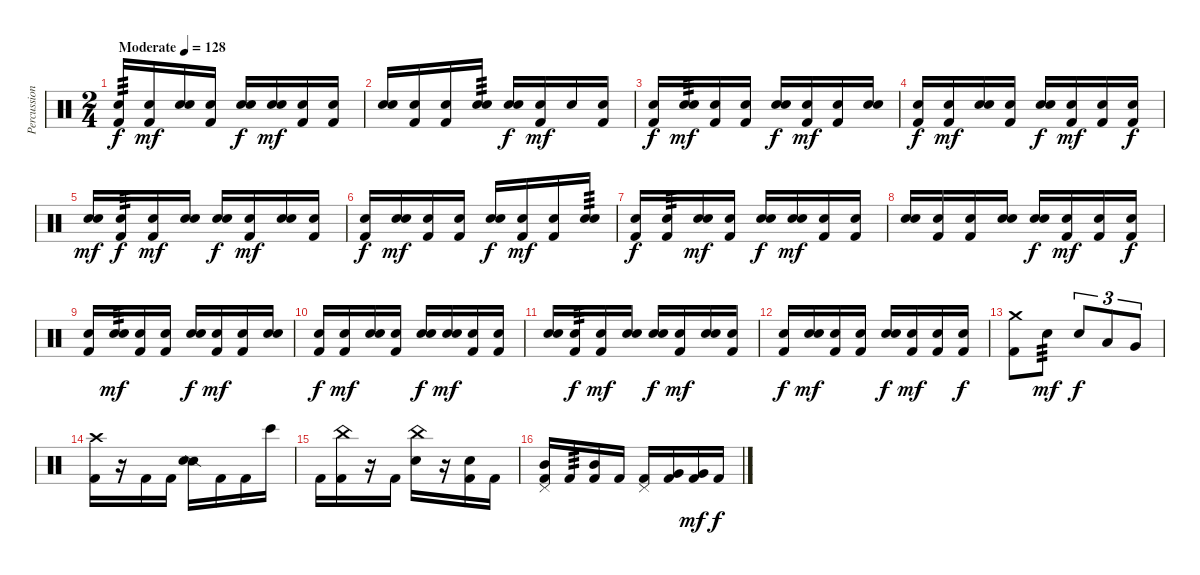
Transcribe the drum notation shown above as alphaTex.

\track ("Percussion" "Percussion") {instrument percussion}
\staff {score}
\articulation defaults
\ts (2 4)
\tempo (128 "Moderate")
\clef neutral
\ks c
("Snare (hit)" "Kick (hit) 2").16{tp 3 dy f volume 0} ("Snare (hit)" "Kick (hit) 2").16{dy mf volume 13} ("Snare (hit)" "Snare (hit) 2").16 ("Snare (hit)" "Kick (hit) 2").16 ("Snare (hit)" "Snare (hit) 2").16{dy f} ("Snare (hit)" "Snare (hit) 2").16{dy mf} ("Snare (hit)" "Kick (hit) 2").16 ("Snare (hit)" "Kick (hit) 2").16 |
("Snare (hit)" "Snare (hit) 2").16 ("Snare (hit)" "Kick (hit) 2").16 ("Snare (hit)" "Kick (hit) 2").16 ("Snare (hit)" "Snare (hit) 2").16{tp 3} ("Snare (hit)" "Snare (hit) 2").16{dy f} ("Snare (hit)" "Kick (hit) 2").16{dy mf} "Snare (hit)".16 ("Snare (hit)" "Kick (hit) 2").16 |
("Snare (hit)" "Kick (hit) 2").16{dy f} ("Snare (hit)" "Snare (hit) 2").16{tp 3 dy mf} ("Snare (hit)" "Kick (hit) 2").16 ("Snare (hit)" "Kick (hit) 2").16 ("Snare (hit)" "Snare (hit) 2").16{dy f} ("Snare (hit)" "Kick (hit) 2").16{dy mf} ("Snare (hit)" "Kick (hit) 2").16 ("Snare (hit)" "Snare (hit) 2").16 |
("Snare (hit)" "Kick (hit) 2").16{dy f} ("Snare (hit)" "Kick (hit) 2").16{dy mf} ("Snare (hit)" "Snare (hit) 2").16 ("Snare (hit)" "Kick (hit) 2").16 ("Snare (hit)" "Snare (hit) 2").16{dy f} ("Snare (hit)" "Kick (hit) 2").16{dy mf} ("Snare (hit)" "Kick (hit) 2").16 ("Snare (hit)" "Kick (hit) 2").16{dy f} |
("Snare (hit)" "Snare (hit) 2").16{dy mf} ("Snare (hit)" "Kick (hit) 2").16{tp 3 dy f} ("Snare (hit)" "Kick (hit) 2").16{dy mf} ("Snare (hit)" "Snare (hit) 2").16 ("Snare (hit)" "Snare (hit) 2").16{dy f} ("Snare (hit)" "Kick (hit) 2").16{dy mf} ("Snare (hit)" "Snare (hit) 2").16 ("Snare (hit)" "Kick (hit) 2").16 |
("Snare (hit)" "Kick (hit) 2").16{dy f} ("Snare (hit)" "Snare (hit) 2").16{dy mf} ("Snare (hit)" "Kick (hit) 2").16 ("Snare (hit)" "Kick (hit) 2").16 ("Snare (hit)" "Snare (hit) 2").16{dy f} ("Snare (hit)" "Kick (hit) 2").16{dy mf} ("Snare (hit)" "Kick (hit) 2").16 ("Snare (hit)" "Snare (hit) 2").16{tp 3} |
("Snare (hit)" "Kick (hit) 2").16{dy f} ("Snare (hit)" "Kick (hit) 2").16{tp 3} ("Snare (hit)" "Snare (hit) 2").16{dy mf} ("Snare (hit)" "Kick (hit) 2").16 ("Snare (hit)" "Snare (hit) 2").16{dy f} ("Snare (hit)" "Snare (hit) 2").16{dy mf} ("Snare (hit)" "Kick (hit) 2").16 ("Snare (hit)" "Kick (hit) 2").16 |
("Snare (hit)" "Snare (hit) 2").16 ("Snare (hit)" "Kick (hit) 2").16 ("Snare (hit)" "Kick (hit) 2").16 ("Snare (hit)" "Snare (hit) 2").16 ("Snare (hit)" "Snare (hit) 2").16{dy f} ("Snare (hit)" "Kick (hit) 2").16{dy mf} ("Snare (hit)" "Kick (hit) 2").16 ("Snare (hit)" "Kick (hit) 2").16{dy f} |
("Snare (hit)" "Kick (hit) 2").16 ("Snare (hit)" "Snare (hit) 2").16{tp 3 dy mf} ("Snare (hit)" "Kick (hit) 2").16 ("Snare (hit)" "Kick (hit) 2").16 ("Snare (hit)" "Snare (hit) 2").16{dy f} ("Snare (hit)" "Kick (hit) 2").16{dy mf} ("Snare (hit)" "Kick (hit) 2").16 ("Snare (hit)" "Snare (hit) 2").16 |
("Snare (hit)" "Kick (hit) 2").16{dy f} ("Snare (hit)" "Kick (hit) 2").16{dy mf} ("Snare (hit)" "Snare (hit) 2").16 ("Snare (hit)" "Kick (hit) 2").16 ("Snare (hit)" "Snare (hit) 2").16{dy f} ("Snare (hit)" "Snare (hit) 2").16{dy mf} ("Snare (hit)" "Kick (hit) 2").16 ("Snare (hit)" "Kick (hit) 2").16 |
("Snare (hit)" "Snare (hit) 2").16 ("Snare (hit)" "Kick (hit) 2").16{tp 3 dy f} ("Snare (hit)" "Kick (hit) 2").16{dy mf} ("Snare (hit)" "Snare (hit) 2").16 ("Snare (hit)" "Snare (hit) 2").16{dy f} ("Snare (hit)" "Kick (hit) 2").16{dy mf} ("Snare (hit)" "Snare (hit) 2").16 ("Snare (hit)" "Kick (hit) 2").16 |
("Snare (hit)" "Kick (hit) 2").16{dy f} ("Snare (hit)" "Snare (hit) 2").16{dy mf} ("Snare (hit)" "Kick (hit) 2").16 ("Snare (hit)" "Kick (hit) 2").16 ("Snare (hit)" "Snare (hit) 2").16{dy f} ("Snare (hit)" "Kick (hit) 2").16{dy mf} ("Snare (hit)" "Kick (hit) 2").16 ("Snare (hit)" "Kick (hit) 2").16{dy f} |
("Crash medium (hit)" "Kick (hit) 2").8 "Snare (hit) 2".8{tp 3 dy mf} "Snare (hit) 2".8{tu (3 2) dy f} "Low Tom (hit)".8{tu (3 2)} "Very Low Tom (hit)".8{tu (3 2)} |
("Crash high (hit)" "Kick (hit) 2").16 r.16 "Kick (hit) 2".16 "Kick (hit) 2".16 ("Snare (side stick) 2" "Snare (hit) 2").16 "Kick (hit) 2".16 "Kick (hit) 2".16 "Bongo High (hit)".16 |
"Kick (hit) 2".16 ("China (hit)" "Kick (hit) 2").16 r.16 "Kick (hit) 2".16 ("China (hit)" "Snare (hit) 2").16 r.16 ("Snare (hit)" "Kick (hit) 2").16 "Kick (hit) 2".16 |
("Pedal Hi-Hat (hit)" "Mid Tom (hit)" "Kick (hit) 2").16 "Kick (hit) 2".16{tp 3} ("Mid Tom (hit)" "Kick (hit) 2").16 "Kick (hit) 2".16 ("Pedal Hi-Hat (hit)" "Kick (hit) 2").16 ("Very Low Tom (hit)" "Kick (hit) 2").16 ("Very Low Tom (hit)" "Kick (hit) 2").16{dy mf} "Kick (hit) 2".16{dy f}
